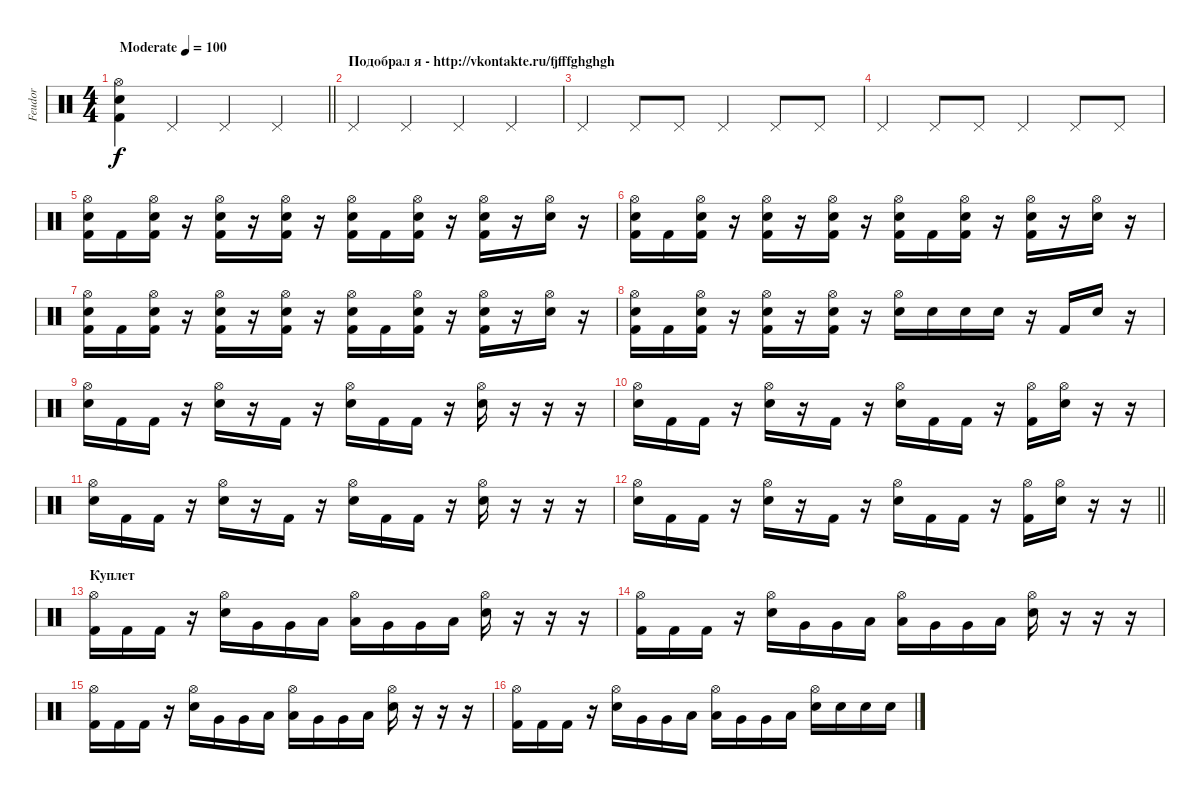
\track ("Feudor" "Feudor") {instrument percussion}
\staff {score}
\articulation defaults
\ts (4 4)
\tempo (100 "Moderate")
\clef neutral
\barLineRight lightlight
\ks c
("Hi-Hat (open)" "Electric Snare (hit)" "Kick (hit) 2").4{dy f} "Pedal Hi-Hat (hit)".4 "Pedal Hi-Hat (hit)".4 "Pedal Hi-Hat (hit)".4 |
\section ("" "Подобрал я - http://vkontakte.ru/fjfffghghgh")
"Pedal Hi-Hat (hit)".4 "Pedal Hi-Hat (hit)".4 "Pedal Hi-Hat (hit)".4 "Pedal Hi-Hat (hit)".4 |
"Pedal Hi-Hat (hit)".4 "Pedal Hi-Hat (hit)".8 "Pedal Hi-Hat (hit)".8 "Pedal Hi-Hat (hit)".4 "Pedal Hi-Hat (hit)".8 "Pedal Hi-Hat (hit)".8 |
"Pedal Hi-Hat (hit)".4 "Pedal Hi-Hat (hit)".8 "Pedal Hi-Hat (hit)".8 "Pedal Hi-Hat (hit)".4 "Pedal Hi-Hat (hit)".8 "Pedal Hi-Hat (hit)".8 |
("Hi-Hat (open)" "Electric Snare (hit)" "Kick (hit) 2").16 "Kick (hit) 2".16 ("Hi-Hat (open)" "Electric Snare (hit)" "Kick (hit) 2").16 r.16 ("Hi-Hat (open)" "Electric Snare (hit)" "Kick (hit) 2").16 r.16 ("Hi-Hat (open)" "Electric Snare (hit)" "Kick (hit) 2").16 r.16 ("Hi-Hat (open)" "Electric Snare (hit)" "Kick (hit) 2").16 "Kick (hit) 2".16 ("Hi-Hat (open)" "Electric Snare (hit)" "Kick (hit) 2").16 r.16 ("Hi-Hat (open)" "Electric Snare (hit)" "Kick (hit) 2").16 r.16 ("Hi-Hat (open)" "Electric Snare (hit)").16 r.16 |
("Hi-Hat (open)" "Electric Snare (hit)" "Kick (hit) 2").16 "Kick (hit) 2".16 ("Hi-Hat (open)" "Electric Snare (hit)" "Kick (hit) 2").16 r.16 ("Hi-Hat (open)" "Electric Snare (hit)" "Kick (hit) 2").16 r.16 ("Hi-Hat (open)" "Electric Snare (hit)" "Kick (hit) 2").16 r.16 ("Hi-Hat (open)" "Electric Snare (hit)" "Kick (hit) 2").16 "Kick (hit) 2".16 ("Hi-Hat (open)" "Electric Snare (hit)" "Kick (hit) 2").16 r.16 ("Hi-Hat (open)" "Electric Snare (hit)" "Kick (hit) 2").16 r.16 ("Hi-Hat (open)" "Electric Snare (hit)").16 r.16 |
("Hi-Hat (open)" "Electric Snare (hit)" "Kick (hit) 2").16 "Kick (hit) 2".16 ("Hi-Hat (open)" "Electric Snare (hit)" "Kick (hit) 2").16 r.16 ("Hi-Hat (open)" "Electric Snare (hit)" "Kick (hit) 2").16 r.16 ("Hi-Hat (open)" "Electric Snare (hit)" "Kick (hit) 2").16 r.16 ("Hi-Hat (open)" "Electric Snare (hit)" "Kick (hit) 2").16 "Kick (hit) 2".16 ("Hi-Hat (open)" "Electric Snare (hit)" "Kick (hit) 2").16 r.16 ("Hi-Hat (open)" "Electric Snare (hit)" "Kick (hit) 2").16 r.16 ("Hi-Hat (open)" "Electric Snare (hit)").16 r.16 |
("Hi-Hat (open)" "Electric Snare (hit)" "Kick (hit) 2").16 "Kick (hit) 2".16 ("Hi-Hat (open)" "Electric Snare (hit)" "Kick (hit) 2").16 r.16 ("Hi-Hat (open)" "Electric Snare (hit)" "Kick (hit) 2").16 r.16 ("Hi-Hat (open)" "Electric Snare (hit)" "Kick (hit) 2").16 r.16 ("Hi-Hat (open)" "Electric Snare (hit)").16 "Electric Snare (hit)".16 "Electric Snare (hit)".16 "Electric Snare (hit)".16 r.16 "Kick (hit) 2".16 "Electric Snare (hit)".16 r.16 |
("Hi-Hat (open)" "Electric Snare (hit)").16 "Kick (hit) 2".16 "Kick (hit) 2".16 r.16 ("Hi-Hat (open)" "Electric Snare (hit)").16 r.16 "Kick (hit) 2".16 r.16 ("Hi-Hat (open)" "Electric Snare (hit)").16 "Kick (hit) 2".16 "Kick (hit) 2".16 r.16 ("Hi-Hat (open)" "Electric Snare (hit)").16 r.16 r.16 r.16 |
("Hi-Hat (open)" "Electric Snare (hit)").16 "Kick (hit) 2".16 "Kick (hit) 2".16 r.16 ("Hi-Hat (open)" "Electric Snare (hit)").16 r.16 "Kick (hit) 2".16 r.16 ("Hi-Hat (open)" "Electric Snare (hit)").16 "Kick (hit) 2".16 "Kick (hit) 2".16 r.16 ("Hi-Hat (open)" "Kick (hit) 2").16 ("Hi-Hat (open)" "Electric Snare (hit)").16 r.16 r.16 |
("Hi-Hat (open)" "Electric Snare (hit)").16 "Kick (hit) 2".16 "Kick (hit) 2".16 r.16 ("Hi-Hat (open)" "Electric Snare (hit)").16 r.16 "Kick (hit) 2".16 r.16 ("Hi-Hat (open)" "Electric Snare (hit)").16 "Kick (hit) 2".16 "Kick (hit) 2".16 r.16 ("Hi-Hat (open)" "Electric Snare (hit)").16 r.16 r.16 r.16 |
\barLineRight lightlight
("Hi-Hat (open)" "Electric Snare (hit)").16 "Kick (hit) 2".16 "Kick (hit) 2".16 r.16 ("Hi-Hat (open)" "Electric Snare (hit)").16 r.16 "Kick (hit) 2".16 r.16 ("Hi-Hat (open)" "Electric Snare (hit)").16 "Kick (hit) 2".16 "Kick (hit) 2".16 r.16 ("Hi-Hat (open)" "Kick (hit) 2").16 ("Hi-Hat (open)" "Electric Snare (hit)").16 r.16 r.16 |
\section ("" "Куплет ")
("Hi-Hat (open)" "Kick (hit) 2").16 "Kick (hit) 2".16 "Kick (hit) 2".16 r.16 ("Hi-Hat (open)" "Electric Snare (hit)").16 "Very Low Tom (hit)".16 "Very Low Tom (hit)".16 "Low Floor Tom (hit)".16 ("Hi-Hat (open)" "Low Floor Tom (hit)").16 "Very Low Tom (hit)".16 "Very Low Tom (hit)".16 "Low Tom (hit)".16 ("Hi-Hat (open)" "Electric Snare (hit)").16 r.16 r.16 r.16 |
("Hi-Hat (open)" "Kick (hit) 2").16 "Kick (hit) 2".16 "Kick (hit) 2".16 r.16 ("Hi-Hat (open)" "Electric Snare (hit)").16 "Very Low Tom (hit)".16 "Very Low Tom (hit)".16 "Low Floor Tom (hit)".16 ("Hi-Hat (open)" "Low Floor Tom (hit)").16 "Very Low Tom (hit)".16 "Very Low Tom (hit)".16 "Low Tom (hit)".16 ("Hi-Hat (open)" "Electric Snare (hit)").16 r.16 r.16 r.16 |
("Hi-Hat (open)" "Kick (hit) 2").16 "Kick (hit) 2".16 "Kick (hit) 2".16 r.16 ("Hi-Hat (open)" "Electric Snare (hit)").16 "Very Low Tom (hit)".16 "Very Low Tom (hit)".16 "Low Floor Tom (hit)".16 ("Hi-Hat (open)" "Low Floor Tom (hit)").16 "Very Low Tom (hit)".16 "Very Low Tom (hit)".16 "Low Tom (hit)".16 ("Hi-Hat (open)" "Electric Snare (hit)").16 r.16 r.16 r.16 |
("Hi-Hat (open)" "Kick (hit) 2").16 "Kick (hit) 2".16 "Kick (hit) 2".16 r.16 ("Hi-Hat (open)" "Electric Snare (hit)").16 "Very Low Tom (hit)".16 "Very Low Tom (hit)".16 "Low Floor Tom (hit)".16 ("Hi-Hat (open)" "Low Floor Tom (hit)").16 "Very Low Tom (hit)".16 "Very Low Tom (hit)".16 "Low Tom (hit)".16 ("Hi-Hat (open)" "Electric Snare (hit)").16 "Electric Snare (hit)".16 "Electric Snare (hit)".16 "Electric Snare (hit)".16
